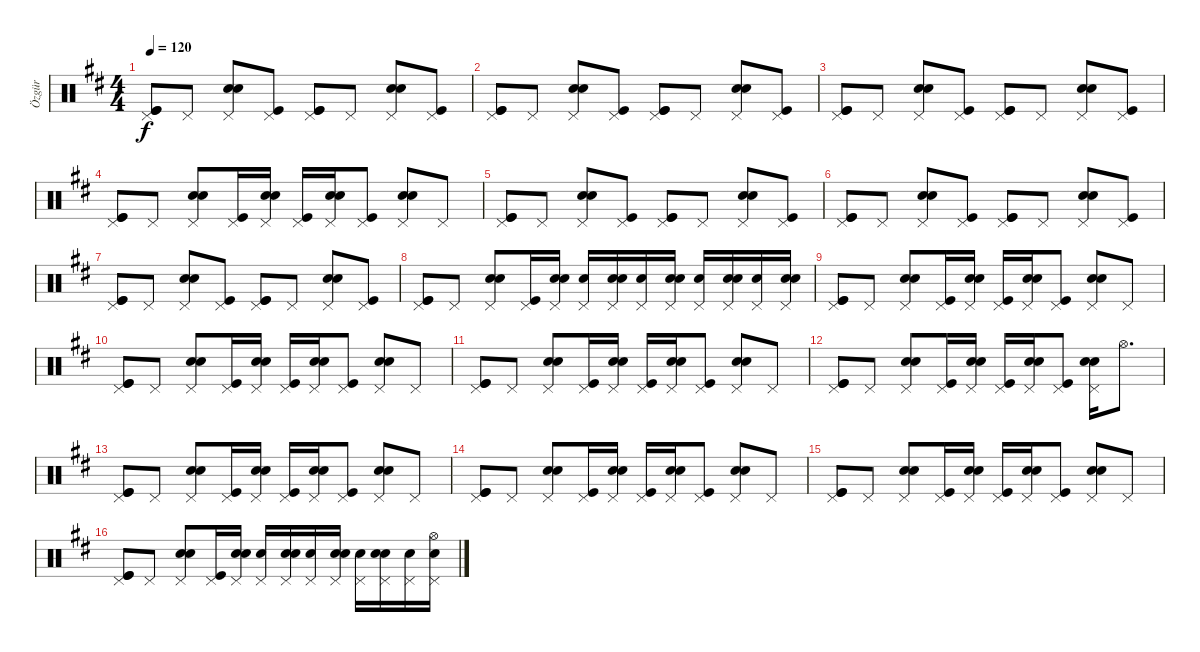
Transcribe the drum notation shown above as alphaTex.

\track ("Özgür" "Özgür") {instrument percussion}
\staff {score}
\articulation defaults
\ts (4 4)
\tempo 120
\clef neutral
\ks d
("Pedal Hi-Hat (hit)" "Kick (hit)" "Kick (hit)").8{dy f} "Pedal Hi-Hat (hit)".8 ("Pedal Hi-Hat (hit)" "Electric Snare (hit)" "Electric Snare (hit)").8 ("Pedal Hi-Hat (hit)" "Kick (hit)").8 ("Pedal Hi-Hat (hit)" "Kick (hit)" "Kick (hit)").8 "Pedal Hi-Hat (hit)".8 ("Pedal Hi-Hat (hit)" "Electric Snare (hit)" "Electric Snare (hit)").8 ("Pedal Hi-Hat (hit)" "Kick (hit)").8 |
("Pedal Hi-Hat (hit)" "Kick (hit)" "Kick (hit)").8 "Pedal Hi-Hat (hit)".8 ("Pedal Hi-Hat (hit)" "Electric Snare (hit)" "Electric Snare (hit)").8 ("Pedal Hi-Hat (hit)" "Kick (hit)").8 ("Pedal Hi-Hat (hit)" "Kick (hit)" "Kick (hit)").8 "Pedal Hi-Hat (hit)".8 ("Pedal Hi-Hat (hit)" "Electric Snare (hit)" "Electric Snare (hit)").8 ("Pedal Hi-Hat (hit)" "Kick (hit)").8 |
("Pedal Hi-Hat (hit)" "Kick (hit)" "Kick (hit)").8 "Pedal Hi-Hat (hit)".8 ("Pedal Hi-Hat (hit)" "Electric Snare (hit)" "Electric Snare (hit)").8 ("Pedal Hi-Hat (hit)" "Kick (hit)").8 ("Pedal Hi-Hat (hit)" "Kick (hit)" "Kick (hit)").8 "Pedal Hi-Hat (hit)".8 ("Pedal Hi-Hat (hit)" "Electric Snare (hit)" "Electric Snare (hit)").8 ("Pedal Hi-Hat (hit)" "Kick (hit)").8 |
("Pedal Hi-Hat (hit)" "Kick (hit)" "Kick (hit)").8 "Pedal Hi-Hat (hit)".8 ("Pedal Hi-Hat (hit)" "Electric Snare (hit)" "Electric Snare (hit)").8 ("Pedal Hi-Hat (hit)" "Kick (hit)").16 ("Pedal Hi-Hat (hit)" "Electric Snare (hit)" "Electric Snare (hit)").16 ("Pedal Hi-Hat (hit)" "Kick (hit)").16 ("Pedal Hi-Hat (hit)" "Electric Snare (hit)" "Electric Snare (hit)").16 ("Pedal Hi-Hat (hit)" "Kick (hit)").8 ("Pedal Hi-Hat (hit)" "Electric Snare (hit)" "Electric Snare (hit)").8 "Pedal Hi-Hat (hit)".8 |
("Pedal Hi-Hat (hit)" "Kick (hit)" "Kick (hit)").8 "Pedal Hi-Hat (hit)".8 ("Pedal Hi-Hat (hit)" "Electric Snare (hit)" "Electric Snare (hit)").8 ("Pedal Hi-Hat (hit)" "Kick (hit)").8 ("Pedal Hi-Hat (hit)" "Kick (hit)" "Kick (hit)").8 "Pedal Hi-Hat (hit)".8 ("Pedal Hi-Hat (hit)" "Electric Snare (hit)" "Electric Snare (hit)").8 ("Pedal Hi-Hat (hit)" "Kick (hit)").8 |
("Pedal Hi-Hat (hit)" "Kick (hit)" "Kick (hit)").8 "Pedal Hi-Hat (hit)".8 ("Pedal Hi-Hat (hit)" "Electric Snare (hit)" "Electric Snare (hit)").8 ("Pedal Hi-Hat (hit)" "Kick (hit)").8 ("Pedal Hi-Hat (hit)" "Kick (hit)" "Kick (hit)").8 "Pedal Hi-Hat (hit)".8 ("Pedal Hi-Hat (hit)" "Electric Snare (hit)" "Electric Snare (hit)").8 ("Pedal Hi-Hat (hit)" "Kick (hit)").8 |
("Pedal Hi-Hat (hit)" "Kick (hit)" "Kick (hit)").8 "Pedal Hi-Hat (hit)".8 ("Pedal Hi-Hat (hit)" "Electric Snare (hit)" "Electric Snare (hit)").8 ("Pedal Hi-Hat (hit)" "Kick (hit)").8 ("Pedal Hi-Hat (hit)" "Kick (hit)" "Kick (hit)").8 "Pedal Hi-Hat (hit)".8 ("Pedal Hi-Hat (hit)" "Electric Snare (hit)" "Electric Snare (hit)").8 ("Pedal Hi-Hat (hit)" "Kick (hit)").8 |
("Pedal Hi-Hat (hit)" "Kick (hit)" "Kick (hit)").8 "Pedal Hi-Hat (hit)".8 ("Pedal Hi-Hat (hit)" "Electric Snare (hit)" "Electric Snare (hit)").8 ("Pedal Hi-Hat (hit)" "Kick (hit)").16 ("Pedal Hi-Hat (hit)" "Electric Snare (hit)" "Electric Snare (hit)").16 ("Pedal Hi-Hat (hit)" "Electric Snare (hit)").16 ("Pedal Hi-Hat (hit)" "Electric Snare (hit)" "Electric Snare (hit)").16 ("Pedal Hi-Hat (hit)" "Electric Snare (hit)").16 ("Pedal Hi-Hat (hit)" "Electric Snare (hit)" "Electric Snare (hit)").16 ("Pedal Hi-Hat (hit)" "Electric Snare (hit)").16 ("Pedal Hi-Hat (hit)" "Electric Snare (hit)" "Electric Snare (hit)").16 ("Pedal Hi-Hat (hit)" "Electric Snare (hit)").16 ("Pedal Hi-Hat (hit)" "Electric Snare (hit)" "Electric Snare (hit)").16 |
("Pedal Hi-Hat (hit)" "Kick (hit)" "Kick (hit)").8 "Pedal Hi-Hat (hit)".8 ("Pedal Hi-Hat (hit)" "Electric Snare (hit)" "Electric Snare (hit)").8 ("Pedal Hi-Hat (hit)" "Kick (hit)").16 ("Pedal Hi-Hat (hit)" "Electric Snare (hit)" "Electric Snare (hit)").16 ("Pedal Hi-Hat (hit)" "Kick (hit)").16 ("Pedal Hi-Hat (hit)" "Electric Snare (hit)" "Electric Snare (hit)").16 ("Pedal Hi-Hat (hit)" "Kick (hit)").8 ("Pedal Hi-Hat (hit)" "Electric Snare (hit)" "Electric Snare (hit)").8 "Pedal Hi-Hat (hit)".8 |
("Pedal Hi-Hat (hit)" "Kick (hit)" "Kick (hit)").8 "Pedal Hi-Hat (hit)".8 ("Pedal Hi-Hat (hit)" "Electric Snare (hit)" "Electric Snare (hit)").8 ("Pedal Hi-Hat (hit)" "Kick (hit)").16 ("Pedal Hi-Hat (hit)" "Electric Snare (hit)" "Electric Snare (hit)").16 ("Pedal Hi-Hat (hit)" "Kick (hit)").16 ("Pedal Hi-Hat (hit)" "Electric Snare (hit)" "Electric Snare (hit)").16 ("Pedal Hi-Hat (hit)" "Kick (hit)").8 ("Pedal Hi-Hat (hit)" "Electric Snare (hit)" "Electric Snare (hit)").8 "Pedal Hi-Hat (hit)".8 |
("Pedal Hi-Hat (hit)" "Kick (hit)" "Kick (hit)").8 "Pedal Hi-Hat (hit)".8 ("Pedal Hi-Hat (hit)" "Electric Snare (hit)" "Electric Snare (hit)").8 ("Pedal Hi-Hat (hit)" "Kick (hit)").16 ("Pedal Hi-Hat (hit)" "Electric Snare (hit)" "Electric Snare (hit)").16 ("Pedal Hi-Hat (hit)" "Kick (hit)").16 ("Pedal Hi-Hat (hit)" "Electric Snare (hit)" "Electric Snare (hit)").16 ("Pedal Hi-Hat (hit)" "Kick (hit)").8 ("Pedal Hi-Hat (hit)" "Electric Snare (hit)" "Electric Snare (hit)").8 "Pedal Hi-Hat (hit)".8 |
("Pedal Hi-Hat (hit)" "Kick (hit)" "Kick (hit)").8 "Pedal Hi-Hat (hit)".8 ("Pedal Hi-Hat (hit)" "Electric Snare (hit)" "Electric Snare (hit)").8 ("Pedal Hi-Hat (hit)" "Kick (hit)").16 ("Pedal Hi-Hat (hit)" "Electric Snare (hit)" "Electric Snare (hit)").16 ("Pedal Hi-Hat (hit)" "Kick (hit)").16 ("Pedal Hi-Hat (hit)" "Electric Snare (hit)" "Electric Snare (hit)").16 ("Pedal Hi-Hat (hit)" "Kick (hit)").8 ("Pedal Hi-Hat (hit)" "Electric Snare (hit)" "Electric Snare (hit)").16 "Hi-Hat (open)".8{d} |
("Pedal Hi-Hat (hit)" "Kick (hit)" "Kick (hit)").8 "Pedal Hi-Hat (hit)".8 ("Pedal Hi-Hat (hit)" "Electric Snare (hit)" "Electric Snare (hit)").8 ("Pedal Hi-Hat (hit)" "Kick (hit)").16 ("Pedal Hi-Hat (hit)" "Electric Snare (hit)" "Electric Snare (hit)").16 ("Pedal Hi-Hat (hit)" "Kick (hit)").16 ("Pedal Hi-Hat (hit)" "Electric Snare (hit)" "Electric Snare (hit)").16 ("Pedal Hi-Hat (hit)" "Kick (hit)").8 ("Pedal Hi-Hat (hit)" "Electric Snare (hit)" "Electric Snare (hit)").8 "Pedal Hi-Hat (hit)".8 |
("Pedal Hi-Hat (hit)" "Kick (hit)" "Kick (hit)").8 "Pedal Hi-Hat (hit)".8 ("Pedal Hi-Hat (hit)" "Electric Snare (hit)" "Electric Snare (hit)").8 ("Pedal Hi-Hat (hit)" "Kick (hit)").16 ("Pedal Hi-Hat (hit)" "Electric Snare (hit)" "Electric Snare (hit)").16 ("Pedal Hi-Hat (hit)" "Kick (hit)").16 ("Pedal Hi-Hat (hit)" "Electric Snare (hit)" "Electric Snare (hit)").16 ("Pedal Hi-Hat (hit)" "Kick (hit)").8 ("Pedal Hi-Hat (hit)" "Electric Snare (hit)" "Electric Snare (hit)").8 "Pedal Hi-Hat (hit)".8 |
("Pedal Hi-Hat (hit)" "Kick (hit)" "Kick (hit)").8 "Pedal Hi-Hat (hit)".8 ("Pedal Hi-Hat (hit)" "Electric Snare (hit)" "Electric Snare (hit)").8 ("Pedal Hi-Hat (hit)" "Kick (hit)").16 ("Pedal Hi-Hat (hit)" "Electric Snare (hit)" "Electric Snare (hit)").16 ("Pedal Hi-Hat (hit)" "Kick (hit)").16 ("Pedal Hi-Hat (hit)" "Electric Snare (hit)" "Electric Snare (hit)").16 ("Pedal Hi-Hat (hit)" "Kick (hit)").8 ("Pedal Hi-Hat (hit)" "Electric Snare (hit)" "Electric Snare (hit)").8 "Pedal Hi-Hat (hit)".8 |
("Pedal Hi-Hat (hit)" "Kick (hit)" "Kick (hit)").8 "Pedal Hi-Hat (hit)".8 ("Pedal Hi-Hat (hit)" "Electric Snare (hit)" "Electric Snare (hit)").8 ("Pedal Hi-Hat (hit)" "Kick (hit)").16 ("Pedal Hi-Hat (hit)" "Electric Snare (hit)" "Electric Snare (hit)").16 ("Pedal Hi-Hat (hit)" "Electric Snare (hit)").16 ("Pedal Hi-Hat (hit)" "Electric Snare (hit)" "Electric Snare (hit)").16 ("Pedal Hi-Hat (hit)" "Electric Snare (hit)").16 ("Pedal Hi-Hat (hit)" "Electric Snare (hit)" "Electric Snare (hit)").16 ("Pedal Hi-Hat (hit)" "Electric Snare (hit)").16 ("Pedal Hi-Hat (hit)" "Electric Snare (hit)" "Electric Snare (hit)").16 ("Pedal Hi-Hat (hit)" "Electric Snare (hit)").16 ("Pedal Hi-Hat (hit)" "Hi-Hat (open)" "Electric Snare (hit)").16
